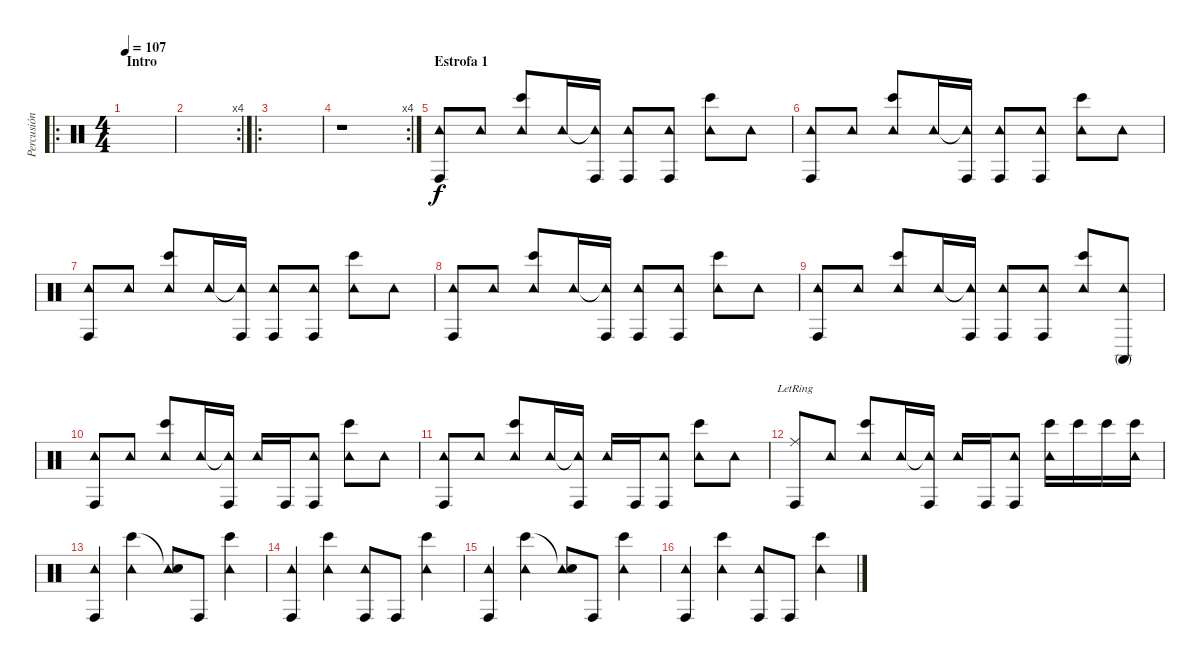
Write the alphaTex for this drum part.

\track ("Percusión" "Percusión") {instrument percussion}
\staff {score}
\articulation defaults
\ro
\ts (4 4)
\section ("" "Intro")
\tempo 107
\clef neutral
\ks c
|
\rc 4
|
\ro
|
\rc 4
r.1 |
\section ("" "Estrofa 1")
("Tambourine (hit)" "Conga high (hit)").8 "Tambourine (hit)".8 ("Tambourine (hit)" "Bongo High (hit)").8 "Tambourine (hit)".16 ("Tambourine (hit)"{t} "Conga high (hit)").16 ("Tambourine (hit)" "Conga high (hit)").8 ("Tambourine (hit)" "Conga high (hit)").8 ("Tambourine (hit)" "Bongo High (hit)").8 "Tambourine (hit)".8 |
("Tambourine (hit)" "Conga high (hit)").8 "Tambourine (hit)".8 ("Tambourine (hit)" "Bongo High (hit)").8 "Tambourine (hit)".16 ("Tambourine (hit)"{t} "Conga high (hit)").16 ("Tambourine (hit)" "Conga high (hit)").8 ("Tambourine (hit)" "Conga high (hit)").8 ("Tambourine (hit)" "Bongo High (hit)").8 "Tambourine (hit)".8 |
("Tambourine (hit)" "Conga high (hit)").8 "Tambourine (hit)".8 ("Tambourine (hit)" "Bongo High (hit)").8 "Tambourine (hit)".16 ("Tambourine (hit)"{t} "Conga high (hit)").16 ("Tambourine (hit)" "Conga high (hit)").8 ("Tambourine (hit)" "Conga high (hit)").8 ("Tambourine (hit)" "Bongo High (hit)").8 "Tambourine (hit)".8 |
("Tambourine (hit)" "Conga high (hit)").8 "Tambourine (hit)".8 ("Tambourine (hit)" "Bongo High (hit)").8 "Tambourine (hit)".16 ("Tambourine (hit)"{t} "Conga high (hit)").16 ("Tambourine (hit)" "Conga high (hit)").8 ("Tambourine (hit)" "Conga high (hit)").8 ("Tambourine (hit)" "Bongo High (hit)").8 "Tambourine (hit)".8 |
("Tambourine (hit)" "Conga high (hit)").8 "Tambourine (hit)".8 ("Tambourine (hit)" "Bongo High (hit)").8 "Tambourine (hit)".16 ("Tambourine (hit)"{t} "Conga high (hit)").16 ("Tambourine (hit)" "Conga high (hit)").8 ("Tambourine (hit)" "Conga high (hit)").8 ("Tambourine (hit)" "Bongo High (hit)").8 ("Tambourine (hit)" "Conga high (mute)").8 |
("Tambourine (hit)" "Conga high (hit)").8 "Tambourine (hit)".8 ("Tambourine (hit)" "Bongo High (hit)").8 "Tambourine (hit)".16 ("Tambourine (hit)"{t} "Conga high (hit)").16 "Tambourine (hit)".16 "Conga high (hit)".16 ("Tambourine (hit)" "Conga high (hit)").8 ("Tambourine (hit)" "Bongo High (hit)").8 "Tambourine (hit)".8 |
("Tambourine (hit)" "Conga high (hit)").8 "Tambourine (hit)".8 ("Tambourine (hit)" "Bongo High (hit)").8 "Tambourine (hit)".16 ("Tambourine (hit)"{t} "Conga high (hit)").16 "Tambourine (hit)".16 "Conga high (hit)".16 ("Tambourine (hit)" "Conga high (hit)").8 ("Tambourine (hit)" "Bongo High (hit)").8 "Tambourine (hit)".8 |
("Ride (middle)"{lr} "Conga high (hit)").8 "Tambourine (hit)".8 ("Tambourine (hit)" "Bongo High (hit)").8 "Tambourine (hit)".16 ("Tambourine (hit)"{t} "Conga high (hit)").16 "Tambourine (hit)".16 "Conga high (hit)".16 ("Tambourine (hit)" "Conga high (hit)").8 ("Tambourine (hit)" "Bongo High (hit)").16 "Bongo High (hit)".16 "Bongo High (hit)".16 ("Tambourine (hit)" "Bongo High (hit)").16 |
("Tambourine (hit)" "Conga high (hit)").4 ("Tambourine (hit)" "Bongo High (hit)").4 ("Tambourine (hit)" "Snare (hit)"{t}).8 "Conga high (hit)".8 ("Tambourine (hit)" "Bongo High (hit)").4 |
("Tambourine (hit)" "Conga high (hit)").4 ("Tambourine (hit)" "Bongo High (hit)").4 ("Tambourine (hit)" "Conga high (hit)").8 "Conga high (hit)".8 ("Tambourine (hit)" "Bongo High (hit)").4 |
("Tambourine (hit)" "Conga high (hit)").4 ("Tambourine (hit)" "Bongo High (hit)").4 ("Tambourine (hit)" "Snare (hit)"{t}).8 "Conga high (hit)".8 ("Tambourine (hit)" "Bongo High (hit)").4 |
("Tambourine (hit)" "Conga high (hit)").4 ("Tambourine (hit)" "Bongo High (hit)").4 ("Tambourine (hit)" "Conga high (hit)").8 "Conga high (hit)".8 ("Tambourine (hit)" "Bongo High (hit)").4
